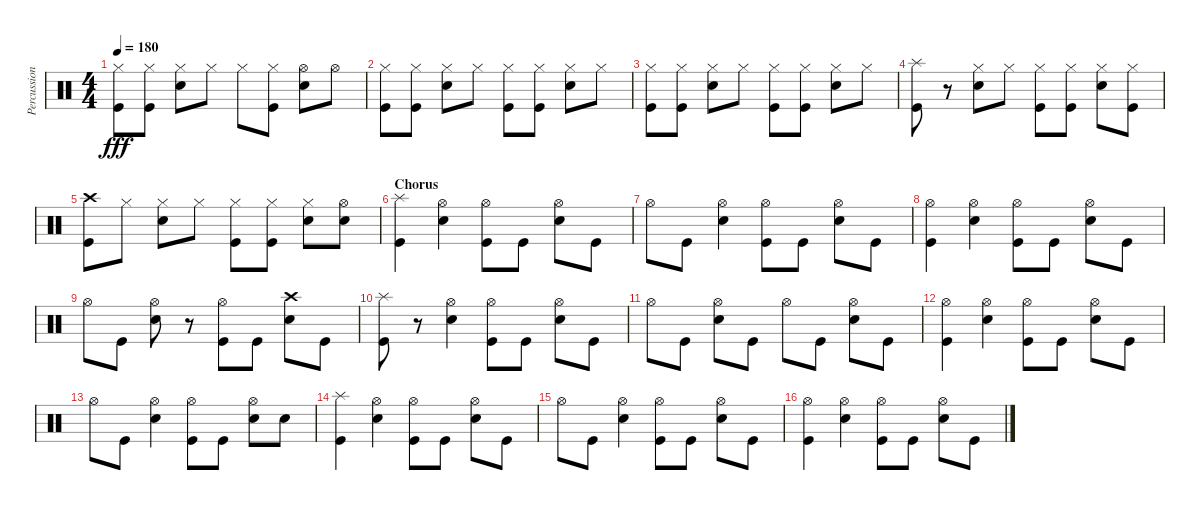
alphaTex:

\track ("Percussion" "Percussion") {instrument percussion}
\staff {score}
\articulation defaults
\ts (4 4)
\tempo 180
\clef neutral
\ks c
("Hi-Hat (closed)" "Kick (hit)").8{dy fff} ("Hi-Hat (closed)" "Kick (hit)").8 ("Hi-Hat (closed)" "Snare (hit) 2").8 "Hi-Hat (closed)".8 "Hi-Hat (closed)".8 ("Hi-Hat (closed)" "Kick (hit)").8 ("Hi-Hat (open)" "Snare (hit) 2").8 "Hi-Hat (open)".8 |
("Hi-Hat (closed)" "Kick (hit)").8 ("Hi-Hat (closed)" "Kick (hit)").8 ("Hi-Hat (closed)" "Snare (hit) 2").8 "Hi-Hat (closed)".8 ("Hi-Hat (closed)" "Kick (hit)").8 ("Hi-Hat (closed)" "Kick (hit)").8 ("Hi-Hat (closed)" "Snare (hit) 2").8 "Hi-Hat (closed)".8 |
("Hi-Hat (closed)" "Kick (hit)").8 ("Hi-Hat (closed)" "Kick (hit)").8 ("Hi-Hat (closed)" "Snare (hit) 2").8 "Hi-Hat (closed)".8 ("Hi-Hat (closed)" "Kick (hit)").8 ("Hi-Hat (closed)" "Kick (hit)").8 ("Hi-Hat (closed)" "Snare (hit) 2").8 "Hi-Hat (closed)".8 |
("Splash (hit)" "Kick (hit)").8 r.8 ("Hi-Hat (closed)" "Snare (hit) 2").8 "Hi-Hat (closed)".8 ("Hi-Hat (closed)" "Kick (hit)").8 ("Hi-Hat (closed)" "Kick (hit)").8 ("Hi-Hat (closed)" "Snare (hit) 2").8 ("Hi-Hat (closed)" "Kick (hit)").8 |
("Crash high (hit)" "Kick (hit)").8 "Hi-Hat (closed)".8 ("Hi-Hat (closed)" "Snare (hit) 2").8 "Hi-Hat (closed)".8 ("Hi-Hat (closed)" "Kick (hit)").8 ("Hi-Hat (closed)" "Kick (hit)").8 ("Hi-Hat (closed)" "Snare (hit) 2").8 ("Hi-Hat (open)" "Snare (hit) 2").8 |
\section ("" "Chorus")
("Splash (hit)" "Kick (hit)").4 ("Hi-Hat (open)" "Snare (hit) 2").4 ("Hi-Hat (open)" "Kick (hit)").8 "Kick (hit)".8 ("Hi-Hat (open)" "Snare (hit) 2").8 "Kick (hit)".8 |
"Hi-Hat (open)".8 "Kick (hit)".8 ("Hi-Hat (open)" "Snare (hit) 2").4 ("Hi-Hat (open)" "Kick (hit)").8 "Kick (hit)".8 ("Hi-Hat (open)" "Snare (hit) 2").8 "Kick (hit)".8 |
("Hi-Hat (open)" "Kick (hit)").4 ("Hi-Hat (open)" "Snare (hit) 2").4 ("Hi-Hat (open)" "Kick (hit)").8 "Kick (hit)".8 ("Hi-Hat (open)" "Snare (hit) 2").8 "Kick (hit)".8 |
"Hi-Hat (open)".8 "Kick (hit)".8 ("Hi-Hat (open)" "Snare (hit) 2").8 r.8 ("Hi-Hat (open)" "Kick (hit)").8 "Kick (hit)".8 ("Crash high (hit)" "Snare (hit) 2").8 "Kick (hit)".8 |
("Splash (hit)" "Kick (hit)").8 r.8 ("Hi-Hat (open)" "Snare (hit) 2").4 ("Hi-Hat (open)" "Kick (hit)").8 "Kick (hit)".8 ("Hi-Hat (open)" "Snare (hit) 2").8 "Kick (hit)".8 |
"Hi-Hat (open)".8 "Kick (hit)".8 ("Hi-Hat (open)" "Snare (hit) 2").8 "Kick (hit)".8 "Hi-Hat (open)".8 "Kick (hit)".8 ("Hi-Hat (open)" "Snare (hit) 2").8 "Kick (hit)".8 |
("Hi-Hat (open)" "Kick (hit)").4 ("Hi-Hat (open)" "Snare (hit) 2").4 ("Hi-Hat (open)" "Kick (hit)").8 "Kick (hit)".8 ("Hi-Hat (open)" "Snare (hit) 2").8 "Kick (hit)".8 |
"Hi-Hat (open)".8 "Kick (hit)".8 ("Hi-Hat (open)" "Snare (hit) 2").4 ("Hi-Hat (open)" "Kick (hit)").8 "Kick (hit)".8 ("Hi-Hat (open)" "Snare (hit) 2").8 "Snare (hit) 2".8 |
("Splash (hit)" "Kick (hit)").4 ("Hi-Hat (open)" "Snare (hit) 2").4 ("Hi-Hat (open)" "Kick (hit)").8 "Kick (hit)".8 ("Hi-Hat (open)" "Snare (hit) 2").8 "Kick (hit)".8 |
"Hi-Hat (open)".8 "Kick (hit)".8 ("Hi-Hat (open)" "Snare (hit) 2").4 ("Hi-Hat (open)" "Kick (hit)").8 "Kick (hit)".8 ("Hi-Hat (open)" "Snare (hit) 2").8 "Kick (hit)".8 |
("Hi-Hat (open)" "Kick (hit)").4 ("Hi-Hat (open)" "Snare (hit) 2").4 ("Hi-Hat (open)" "Kick (hit)").8 "Kick (hit)".8 ("Hi-Hat (open)" "Snare (hit) 2").8 "Kick (hit)".8
